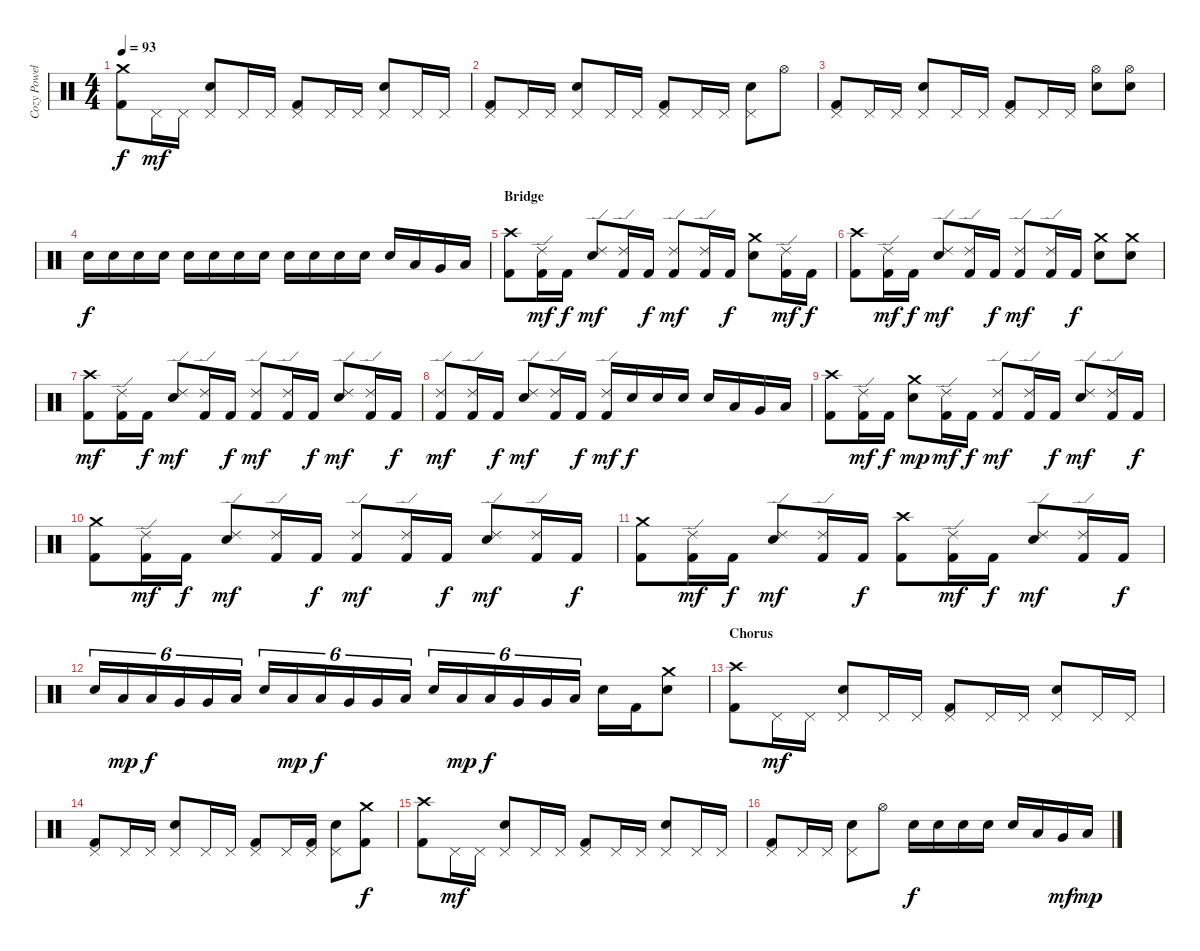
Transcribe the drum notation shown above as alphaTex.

\track ("Cozy Powell" "Cozy Powel") {instrument percussion}
\staff {score}
\articulation defaults
\ts (4 4)
\tempo 93
\clef neutral
\ks c
("Kick (hit) 2" "Crash medium (hit)").8{dy f} "Pedal Hi-Hat (hit)".16{dy mf} "Pedal Hi-Hat (hit)".16 ("Pedal Hi-Hat (hit)" "Snare (hit) 2").8 "Pedal Hi-Hat (hit)".16 "Pedal Hi-Hat (hit)".16 ("Kick (hit) 2" "Pedal Hi-Hat (hit)").8 "Pedal Hi-Hat (hit)".16 "Pedal Hi-Hat (hit)".16 ("Pedal Hi-Hat (hit)" "Snare (hit) 2").8 "Pedal Hi-Hat (hit)".16 "Pedal Hi-Hat (hit)".16 |
("Kick (hit) 2" "Pedal Hi-Hat (hit)").8 "Pedal Hi-Hat (hit)".16 "Pedal Hi-Hat (hit)".16 ("Pedal Hi-Hat (hit)" "Snare (hit) 2").8 "Pedal Hi-Hat (hit)".16 "Pedal Hi-Hat (hit)".16 ("Kick (hit) 2" "Pedal Hi-Hat (hit)").8 "Pedal Hi-Hat (hit)".16 "Pedal Hi-Hat (hit)".16 ("Pedal Hi-Hat (hit)" "Snare (hit) 2").8 "Hi-Hat (open)".8 |
("Kick (hit) 2" "Pedal Hi-Hat (hit)").8 "Pedal Hi-Hat (hit)".16 "Pedal Hi-Hat (hit)".16 ("Pedal Hi-Hat (hit)" "Snare (hit) 2").8 "Pedal Hi-Hat (hit)".16 "Pedal Hi-Hat (hit)".16 ("Kick (hit) 2" "Pedal Hi-Hat (hit)").8 "Pedal Hi-Hat (hit)".16 "Pedal Hi-Hat (hit)".16 ("Hi-Hat (open)" "Snare (hit) 2").8 ("Hi-Hat (open)" "Snare (hit) 2").8 |
"Snare (hit) 2".16{dy f} "Snare (hit) 2".16 "Snare (hit) 2".16 "Snare (hit) 2".16 "Snare (hit) 2".16 "Snare (hit) 2".16 "Snare (hit) 2".16 "Snare (hit) 2".16 "Snare (hit) 2".16 "Snare (hit) 2".16 "Snare (hit) 2".16 "Snare (hit) 2".16 "Snare (hit) 2".16 "Low Tom (hit)".16 "Very Low Tom (hit)".16 "Low Floor Tom (hit)".16 |
\section ("" "Bridge")
("Kick (hit) 2" "Crash high (hit)").8 ("Kick (hit) 2" "Ride (edge) 2").16{dy mf} "Kick (hit) 2".16{dy f} ("Ride (edge) 2" "Snare (hit) 2").8{dy mf} ("Kick (hit) 2" "Ride (edge) 2").16 "Kick (hit) 2".16{dy f} ("Kick (hit) 2" "Ride (edge) 2").8{dy mf} ("Kick (hit) 2" "Ride (edge) 2").16 "Kick (hit) 2".16{dy f} ("Crash medium (hit)" "Snare (hit) 2").8 ("Kick (hit) 2" "Ride (edge) 2").16{dy mf} "Kick (hit) 2".16{dy f} |
("Kick (hit) 2" "Crash high (hit)").8 ("Kick (hit) 2" "Ride (edge) 2").16{dy mf} "Kick (hit) 2".16{dy f} ("Ride (edge) 2" "Snare (hit) 2").8{dy mf} ("Kick (hit) 2" "Ride (edge) 2").16 "Kick (hit) 2".16{dy f} ("Kick (hit) 2" "Ride (edge) 2").8{dy mf} ("Kick (hit) 2" "Ride (edge) 2").16 "Kick (hit) 2".16{dy f} ("Crash medium (hit)" "Snare (hit) 2").8 ("Crash medium (hit)" "Snare (hit) 2").8 |
("Kick (hit) 2" "Crash high (hit)").8{dy mf} ("Kick (hit) 2" "Ride (edge) 2").16 "Kick (hit) 2".16{dy f} ("Ride (edge) 2" "Snare (hit) 2").8{dy mf} ("Kick (hit) 2" "Ride (edge) 2").16 "Kick (hit) 2".16{dy f} ("Kick (hit) 2" "Ride (edge) 2").8{dy mf} ("Kick (hit) 2" "Ride (edge) 2").16 "Kick (hit) 2".16{dy f} ("Ride (edge) 2" "Snare (hit) 2").8{dy mf} ("Kick (hit) 2" "Ride (edge) 2").16 "Kick (hit) 2".16{dy f} |
("Kick (hit) 2" "Ride (edge) 2").8{dy mf} ("Kick (hit) 2" "Ride (edge) 2").16 "Kick (hit) 2".16{dy f} ("Ride (edge) 2" "Snare (hit) 2").8{dy mf} ("Kick (hit) 2" "Ride (edge) 2").16 "Kick (hit) 2".16{dy f} ("Kick (hit) 2" "Ride (edge) 2").16{dy mf} "Snare (hit) 2".16{dy f} "Snare (hit) 2".16 "Snare (hit) 2".16 "Snare (hit) 2".16 "Low Tom (hit)".16 "Very Low Tom (hit)".16 "Low Floor Tom (hit)".16 |
("Kick (hit) 2" "Crash high (hit)").8 ("Kick (hit) 2" "Ride (edge) 2").16{dy mf} "Kick (hit) 2".16{dy f} ("Crash medium (hit)" "Snare (hit) 2").8{dy mp} ("Kick (hit) 2" "Ride (edge) 2").16{dy mf} "Kick (hit) 2".16{dy f} ("Kick (hit) 2" "Ride (edge) 2").8{dy mf} ("Kick (hit) 2" "Ride (edge) 2").16 "Kick (hit) 2".16{dy f} ("Ride (edge) 2" "Snare (hit) 2").8{dy mf} ("Kick (hit) 2" "Ride (edge) 2").16 "Kick (hit) 2".16{dy f} |
("Kick (hit) 2" "Crash medium (hit)").8 ("Kick (hit) 2" "Ride (edge) 2").16{dy mf} "Kick (hit) 2".16{dy f} ("Ride (edge) 2" "Snare (hit) 2").8{dy mf} ("Kick (hit) 2" "Ride (edge) 2").16 "Kick (hit) 2".16{dy f} ("Kick (hit) 2" "Ride (edge) 2").8{dy mf} ("Kick (hit) 2" "Ride (edge) 2").16 "Kick (hit) 2".16{dy f} ("Ride (edge) 2" "Snare (hit) 2").8{dy mf} ("Kick (hit) 2" "Ride (edge) 2").16 "Kick (hit) 2".16{dy f} |
("Kick (hit) 2" "Crash medium (hit)").8 ("Kick (hit) 2" "Ride (edge) 2").16{dy mf} "Kick (hit) 2".16{dy f} ("Ride (edge) 2" "Snare (hit) 2").8{dy mf} ("Kick (hit) 2" "Ride (edge) 2").16 "Kick (hit) 2".16{dy f} ("Kick (hit) 2" "Crash high (hit)").8 ("Kick (hit) 2" "Ride (edge) 2").16{dy mf} "Kick (hit) 2".16{dy f} ("Ride (edge) 2" "Snare (hit) 2").8{dy mf} ("Kick (hit) 2" "Ride (edge) 2").16 "Kick (hit) 2".16{dy f} |
"Snare (hit) 2".16{tu (6 4)} "Low Tom (hit)".16{tu (6 4) dy mp} "Low Tom (hit)".16{tu (6 4) dy f} "Very Low Tom (hit)".16{tu (6 4)} "Very Low Tom (hit)".16{tu (6 4)} "Low Floor Tom (hit)".16{tu (6 4)} "Snare (hit) 2".16{tu (6 4)} "Low Tom (hit)".16{tu (6 4) dy mp} "Low Tom (hit)".16{tu (6 4) dy f} "Very Low Tom (hit)".16{tu (6 4)} "Very Low Tom (hit)".16{tu (6 4)} "Low Floor Tom (hit)".16{tu (6 4)} "Snare (hit) 2".16{tu (6 4)} "Low Tom (hit)".16{tu (6 4) dy mp} "Low Tom (hit)".16{tu (6 4) dy f} "Very Low Tom (hit)".16{tu (6 4)} "Very Low Tom (hit)".16{tu (6 4)} "Low Floor Tom (hit)".16{tu (6 4)} "Snare (hit) 2".16 "Kick (hit) 2".16 ("Crash medium (hit)" "Snare (hit) 2").8 |
\section ("" "Chorus")
("Kick (hit) 2" "Crash high (hit)").8 "Pedal Hi-Hat (hit)".16{dy mf} "Pedal Hi-Hat (hit)".16 ("Pedal Hi-Hat (hit)" "Snare (hit) 2").8 "Pedal Hi-Hat (hit)".16 "Pedal Hi-Hat (hit)".16 ("Kick (hit) 2" "Pedal Hi-Hat (hit)").8 "Pedal Hi-Hat (hit)".16 "Pedal Hi-Hat (hit)".16 ("Pedal Hi-Hat (hit)" "Snare (hit) 2").8 "Pedal Hi-Hat (hit)".16 "Pedal Hi-Hat (hit)".16 |
("Kick (hit) 2" "Pedal Hi-Hat (hit)").8 "Pedal Hi-Hat (hit)".16 "Pedal Hi-Hat (hit)".16 ("Pedal Hi-Hat (hit)" "Snare (hit) 2").8 "Pedal Hi-Hat (hit)".16 "Pedal Hi-Hat (hit)".16 ("Kick (hit) 2" "Pedal Hi-Hat (hit)").8 "Pedal Hi-Hat (hit)".16 ("Kick (hit) 2" "Pedal Hi-Hat (hit)").16 ("Pedal Hi-Hat (hit)" "Snare (hit) 2").8 ("Kick (hit) 2" "Crash medium (hit)").8{dy f} |
("Kick (hit) 2" "Crash high (hit)").8 "Pedal Hi-Hat (hit)".16{dy mf} "Pedal Hi-Hat (hit)".16 ("Pedal Hi-Hat (hit)" "Snare (hit) 2").8 "Pedal Hi-Hat (hit)".16 "Pedal Hi-Hat (hit)".16 ("Kick (hit) 2" "Pedal Hi-Hat (hit)").8 "Pedal Hi-Hat (hit)".16 "Pedal Hi-Hat (hit)".16 ("Pedal Hi-Hat (hit)" "Snare (hit) 2").8 "Pedal Hi-Hat (hit)".16 "Pedal Hi-Hat (hit)".16 |
("Kick (hit) 2" "Pedal Hi-Hat (hit)").8 "Pedal Hi-Hat (hit)".16 "Pedal Hi-Hat (hit)".16 ("Pedal Hi-Hat (hit)" "Snare (hit) 2").8 "Hi-Hat (open)".8 "Snare (hit) 2".16{dy f} "Snare (hit) 2".16 "Snare (hit) 2".16 "Snare (hit) 2".16 "Snare (hit) 2".16 "Low Tom (hit)".16 "Very Low Tom (hit)".16{dy mf} "Low Floor Tom (hit)".16{dy mp}
